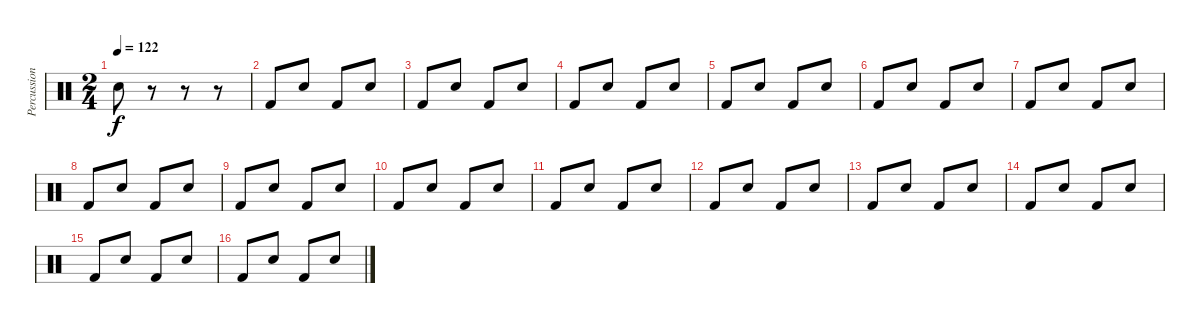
\track ("Percussion" "Percussion") {instrument percussion}
\staff {score}
\articulation defaults
\ts (2 4)
\tempo 122
\clef neutral
\ks c "Snare (hit) 2".8{dy f}
r.8 r.8 r.8 |
"Kick (hit) 2".8 "Snare (hit) 2".8 "Kick (hit) 2".8 "Snare (hit) 2".8 |
"Kick (hit) 2".8 "Snare (hit) 2".8 "Kick (hit) 2".8 "Snare (hit) 2".8 |
"Kick (hit) 2".8 "Snare (hit) 2".8 "Kick (hit) 2".8 "Snare (hit) 2".8 |
"Kick (hit) 2".8 "Snare (hit) 2".8 "Kick (hit) 2".8 "Snare (hit) 2".8 |
"Kick (hit) 2".8 "Snare (hit) 2".8 "Kick (hit) 2".8 "Snare (hit) 2".8 |
"Kick (hit) 2".8 "Snare (hit) 2".8 "Kick (hit) 2".8 "Snare (hit) 2".8 |
"Kick (hit) 2".8 "Snare (hit) 2".8 "Kick (hit) 2".8 "Snare (hit) 2".8 |
"Kick (hit) 2".8 "Snare (hit) 2".8 "Kick (hit) 2".8 "Snare (hit) 2".8 |
"Kick (hit) 2".8 "Snare (hit) 2".8 "Kick (hit) 2".8 "Snare (hit) 2".8 |
"Kick (hit) 2".8 "Snare (hit) 2".8 "Kick (hit) 2".8 "Snare (hit) 2".8 |
"Kick (hit) 2".8 "Snare (hit) 2".8 "Kick (hit) 2".8 "Snare (hit) 2".8 |
"Kick (hit) 2".8 "Snare (hit) 2".8 "Kick (hit) 2".8 "Snare (hit) 2".8 |
"Kick (hit) 2".8 "Snare (hit) 2".8 "Kick (hit) 2".8 "Snare (hit) 2".8 |
"Kick (hit) 2".8 "Snare (hit) 2".8 "Kick (hit) 2".8 "Snare (hit) 2".8 |
"Kick (hit) 2".8 "Snare (hit) 2".8 "Kick (hit) 2".8 "Snare (hit) 2".8
